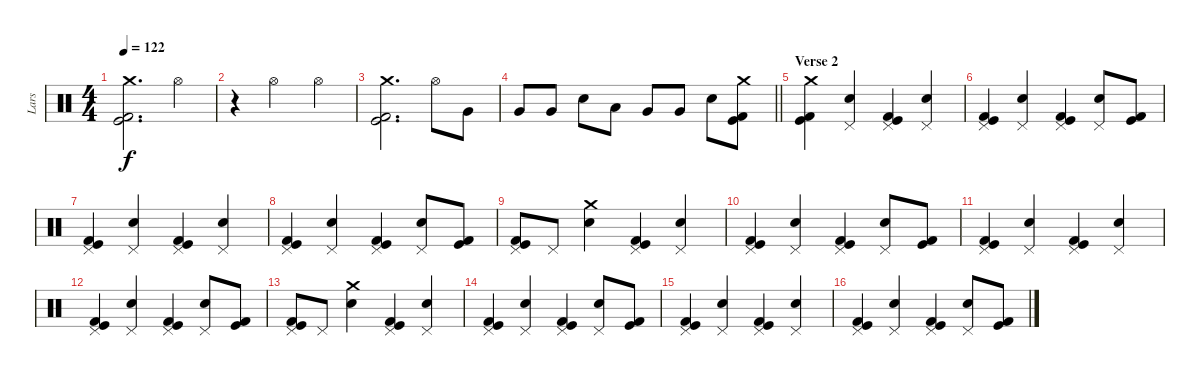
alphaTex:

\track ("Lars" "Lars") {instrument percussion}
\staff {score}
\articulation defaults
\ts (4 4)
\tempo 122
\clef neutral
\ks c
("Crash medium (hit)" "Kick (hit)" "Kick (hit) 2").2{d dy f} "Hi-Hat (open)".4 |
r.4 "Hi-Hat (open)".2 "Hi-Hat (open)".4 |
("Crash medium (hit)" "Kick (hit)" "Kick (hit) 2").2{d} "Hi-Hat (open)".8 "Very Low Tom (hit)".8 |
\barLineRight lightlight "Very Low Tom (hit)".8 "Very Low Tom (hit)".8 "Electric Snare (hit)".8 "Low Tom (hit)".8 "Very Low Tom (hit)".8 "Very Low Tom (hit)".8 "Electric Snare (hit)".8
("Crash medium (hit)" "Kick (hit)" "Kick (hit) 2").8 |
\section ("" "Verse 2")
("Crash medium (hit)" "Kick (hit)" "Kick (hit) 2").4 ("Pedal Hi-Hat (hit)" "Electric Snare (hit)").4 ("Pedal Hi-Hat (hit)" "Kick (hit)" "Kick (hit) 2").4 ("Pedal Hi-Hat (hit)" "Electric Snare (hit)").4 |
("Pedal Hi-Hat (hit)" "Kick (hit)" "Kick (hit) 2").4 ("Pedal Hi-Hat (hit)" "Electric Snare (hit)").4 ("Pedal Hi-Hat (hit)" "Kick (hit)" "Kick (hit) 2").4 ("Pedal Hi-Hat (hit)" "Electric Snare (hit)").8 ("Kick (hit)" "Kick (hit) 2").8 |
("Pedal Hi-Hat (hit)" "Kick (hit)" "Kick (hit) 2").4 ("Pedal Hi-Hat (hit)" "Electric Snare (hit)").4 ("Pedal Hi-Hat (hit)" "Kick (hit)" "Kick (hit) 2").4 ("Pedal Hi-Hat (hit)" "Electric Snare (hit)").4 |
("Pedal Hi-Hat (hit)" "Kick (hit)" "Kick (hit) 2").4 ("Pedal Hi-Hat (hit)" "Electric Snare (hit)").4 ("Pedal Hi-Hat (hit)" "Kick (hit)" "Kick (hit) 2").4 ("Pedal Hi-Hat (hit)" "Electric Snare (hit)").8 ("Kick (hit)" "Kick (hit) 2").8 |
("Pedal Hi-Hat (hit)" "Kick (hit)" "Kick (hit) 2").8 "Pedal Hi-Hat (hit)".8 ("Crash medium (hit)" "Electric Snare (hit)").4 ("Pedal Hi-Hat (hit)" "Kick (hit)" "Kick (hit) 2").4 ("Pedal Hi-Hat (hit)" "Electric Snare (hit)").4 |
("Pedal Hi-Hat (hit)" "Kick (hit)" "Kick (hit) 2").4 ("Pedal Hi-Hat (hit)" "Electric Snare (hit)").4 ("Pedal Hi-Hat (hit)" "Kick (hit)" "Kick (hit) 2").4 ("Pedal Hi-Hat (hit)" "Electric Snare (hit)").8 ("Kick (hit)" "Kick (hit) 2").8 |
("Pedal Hi-Hat (hit)" "Kick (hit)" "Kick (hit) 2").4 ("Pedal Hi-Hat (hit)" "Electric Snare (hit)").4 ("Pedal Hi-Hat (hit)" "Kick (hit)" "Kick (hit) 2").4 ("Pedal Hi-Hat (hit)" "Electric Snare (hit)").4 |
("Pedal Hi-Hat (hit)" "Kick (hit)" "Kick (hit) 2").4 ("Pedal Hi-Hat (hit)" "Electric Snare (hit)").4 ("Pedal Hi-Hat (hit)" "Kick (hit)" "Kick (hit) 2").4 ("Pedal Hi-Hat (hit)" "Electric Snare (hit)").8 ("Kick (hit)" "Kick (hit) 2").8 |
("Pedal Hi-Hat (hit)" "Kick (hit)" "Kick (hit) 2").8 "Pedal Hi-Hat (hit)".8 ("Crash medium (hit)" "Electric Snare (hit)").4 ("Pedal Hi-Hat (hit)" "Kick (hit)" "Kick (hit) 2").4 ("Pedal Hi-Hat (hit)" "Electric Snare (hit)").4 |
("Pedal Hi-Hat (hit)" "Kick (hit)" "Kick (hit) 2").4 ("Pedal Hi-Hat (hit)" "Electric Snare (hit)").4 ("Pedal Hi-Hat (hit)" "Kick (hit)" "Kick (hit) 2").4 ("Pedal Hi-Hat (hit)" "Electric Snare (hit)").8 ("Kick (hit)" "Kick (hit) 2").8 |
("Pedal Hi-Hat (hit)" "Kick (hit)" "Kick (hit) 2").4 ("Pedal Hi-Hat (hit)" "Electric Snare (hit)").4 ("Pedal Hi-Hat (hit)" "Kick (hit)" "Kick (hit) 2").4 ("Pedal Hi-Hat (hit)" "Electric Snare (hit)").4 |
("Pedal Hi-Hat (hit)" "Kick (hit)" "Kick (hit) 2").4 ("Pedal Hi-Hat (hit)" "Electric Snare (hit)").4 ("Pedal Hi-Hat (hit)" "Kick (hit)" "Kick (hit) 2").4 ("Pedal Hi-Hat (hit)" "Electric Snare (hit)").8 ("Kick (hit)" "Kick (hit) 2").8
